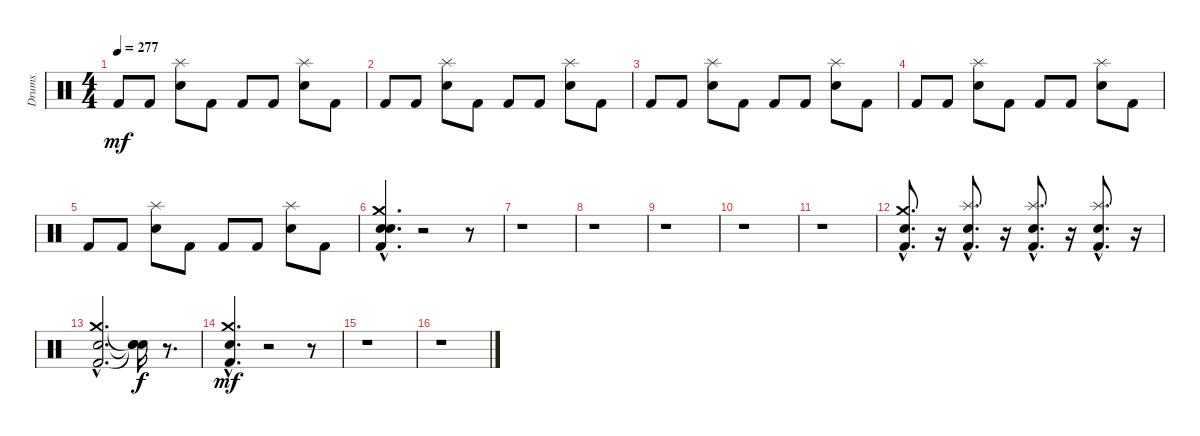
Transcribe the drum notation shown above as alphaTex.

\track ("Drums" "Drums") {instrument percussion}
\staff {score}
\articulation defaults
\ts (4 4)
\tempo 277
\clef neutral
\ks c "Kick (hit) 2".8{dy mf} "Kick (hit) 2".8
("Electric Snare (hit)" "Splash (hit)").8 "Kick (hit) 2".8 "Kick (hit) 2".8 "Kick (hit) 2".8 ("Electric Snare (hit)" "Splash (hit)").8 "Kick (hit) 2".8 |
"Kick (hit) 2".8 "Kick (hit) 2".8 ("Splash (hit)" "Electric Snare (hit)").8 "Kick (hit) 2".8 "Kick (hit) 2".8 "Kick (hit) 2".8 ("Splash (hit)" "Electric Snare (hit)").8 "Kick (hit) 2".8 |
"Kick (hit) 2".8 "Kick (hit) 2".8 ("Splash (hit)" "Electric Snare (hit)").8 "Kick (hit) 2".8 "Kick (hit) 2".8 "Kick (hit) 2".8 ("Splash (hit)" "Electric Snare (hit)").8 "Kick (hit) 2".8 |
"Kick (hit) 2".8 "Kick (hit) 2".8 ("Splash (hit)" "Electric Snare (hit)").8 "Kick (hit) 2".8 "Kick (hit) 2".8 "Kick (hit) 2".8 ("Splash (hit)" "Electric Snare (hit)").8 "Kick (hit) 2".8 |
"Kick (hit) 2".8 "Kick (hit) 2".8 ("Electric Snare (hit)" "Splash (hit)").8 "Kick (hit) 2".8 "Kick (hit) 2".8 "Kick (hit) 2".8 ("Electric Snare (hit)" "Splash (hit)").8 "Kick (hit) 2".8 |
("Crash medium (hit)"{hac} "Snare (hit) 2"{hac} "Kick (hit) 2"{hac} "Electric Snare (hit)"{hac}).4{d} r.2 r.8 |
r.1 |
r.1 |
r.1 |
r.1 |
r.1 |
("Crash medium (hit)"{hac} "Snare (hit) 2"{hac} "Kick (hit) 2"{hac}).8{d} r.16 ("Splash (hit)"{hac} "Snare (hit) 2"{hac} "Kick (hit) 2"{hac}).8{d} r.16 ("Splash (hit)"{hac} "Snare (hit) 2"{hac} "Kick (hit) 2"{hac}).8{d} r.16 ("Splash (hit)"{hac} "Snare (hit) 2"{hac} "Kick (hit) 2"{hac}).8{d} r.16 |
("Crash medium (hit)"{hac} "Snare (hit) 2"{hac} "Kick (hit) 2"{hac}).2{d} ("Snare (hit)"{t} "Snare (hit)"{t} "Snare (hit)"{t}).16{dy f} r.8{d} |
("Snare (hit) 2"{hac} "Crash medium (hit)"{hac} "Kick (hit) 2"{hac}).4{d dy mf} r.2 r.8 |
r.1 |
r.1
